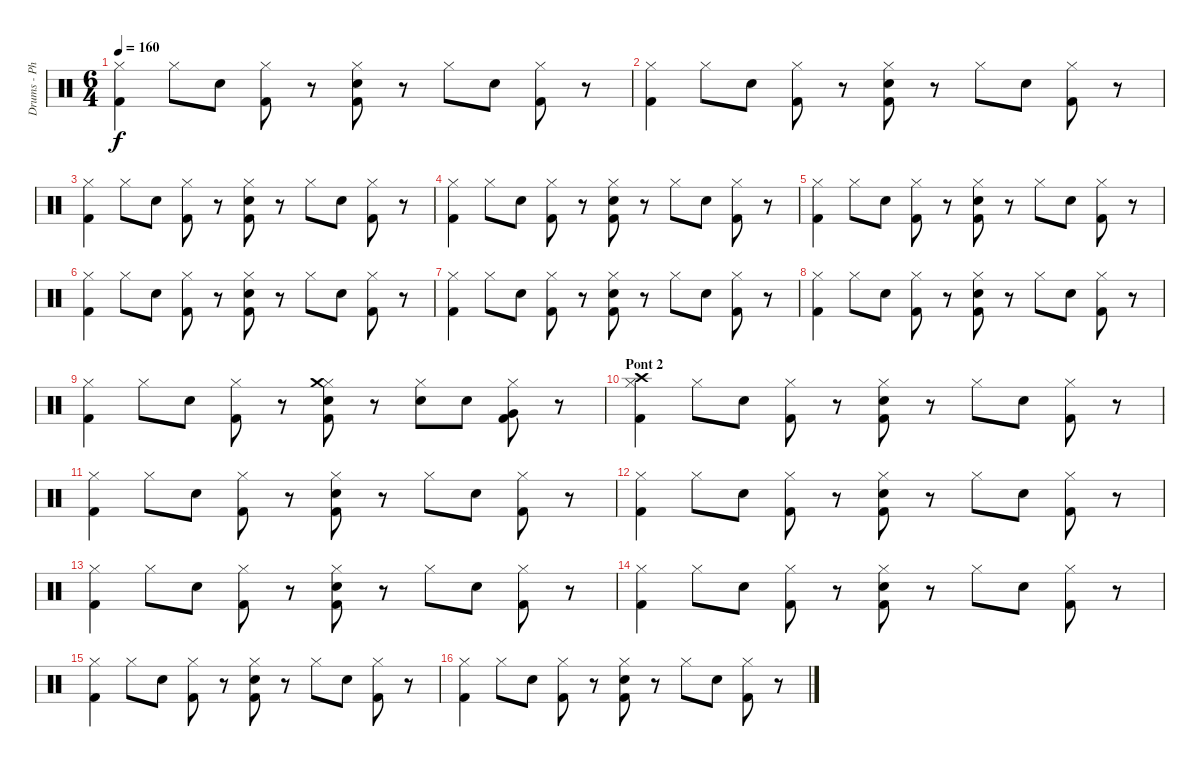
\track ("Drums - Phil Selway" "Drums - Ph") {instrument percussion}
\staff {score}
\articulation defaults
\ts (6 4)
\tempo 160
\clef neutral
\ks c
("Hi-Hat (closed)" "Kick (hit) 2").4{dy f} "Hi-Hat (closed)".8 "Snare (hit) 2".8 ("Hi-Hat (closed)" "Kick (hit) 2").8 r.8 ("Hi-Hat (closed)" "Snare (hit) 2" "Kick (hit) 2").8 r.8 "Hi-Hat (closed)".8 "Snare (hit) 2".8 ("Hi-Hat (closed)" "Kick (hit) 2").8 r.8 |
("Hi-Hat (closed)" "Kick (hit) 2").4 "Hi-Hat (closed)".8 "Snare (hit) 2".8 ("Hi-Hat (closed)" "Kick (hit) 2").8 r.8 ("Hi-Hat (closed)" "Snare (hit) 2" "Kick (hit) 2").8 r.8 "Hi-Hat (closed)".8 "Snare (hit) 2".8 ("Hi-Hat (closed)" "Kick (hit) 2").8 r.8 |
("Hi-Hat (closed)" "Kick (hit) 2").4 "Hi-Hat (closed)".8 "Snare (hit) 2".8 ("Hi-Hat (closed)" "Kick (hit) 2").8 r.8 ("Hi-Hat (closed)" "Snare (hit) 2" "Kick (hit) 2").8 r.8 "Hi-Hat (closed)".8 "Snare (hit) 2".8 ("Hi-Hat (closed)" "Kick (hit) 2").8 r.8 |
("Hi-Hat (closed)" "Kick (hit) 2").4 "Hi-Hat (closed)".8 "Snare (hit) 2".8 ("Hi-Hat (closed)" "Kick (hit) 2").8 r.8 ("Hi-Hat (closed)" "Snare (hit) 2" "Kick (hit) 2").8 r.8 "Hi-Hat (closed)".8 "Snare (hit) 2".8 ("Hi-Hat (closed)" "Kick (hit) 2").8 r.8 |
("Hi-Hat (closed)" "Kick (hit) 2").4 "Hi-Hat (closed)".8 "Snare (hit) 2".8 ("Hi-Hat (closed)" "Kick (hit) 2").8 r.8 ("Hi-Hat (closed)" "Snare (hit) 2" "Kick (hit) 2").8 r.8 "Hi-Hat (closed)".8 "Snare (hit) 2".8 ("Hi-Hat (closed)" "Kick (hit) 2").8 r.8 |
("Hi-Hat (closed)" "Kick (hit) 2").4 "Hi-Hat (closed)".8 "Snare (hit) 2".8 ("Hi-Hat (closed)" "Kick (hit) 2").8 r.8 ("Hi-Hat (closed)" "Snare (hit) 2" "Kick (hit) 2").8 r.8 "Hi-Hat (closed)".8 "Snare (hit) 2".8 ("Hi-Hat (closed)" "Kick (hit) 2").8 r.8 |
("Hi-Hat (closed)" "Kick (hit) 2").4 "Hi-Hat (closed)".8 "Snare (hit) 2".8 ("Hi-Hat (closed)" "Kick (hit) 2").8 r.8 ("Hi-Hat (closed)" "Snare (hit) 2" "Kick (hit) 2").8 r.8 "Hi-Hat (closed)".8 "Snare (hit) 2".8 ("Hi-Hat (closed)" "Kick (hit) 2").8 r.8 |
("Hi-Hat (closed)" "Kick (hit) 2").4 "Hi-Hat (closed)".8 "Snare (hit) 2".8 ("Hi-Hat (closed)" "Kick (hit) 2").8 r.8 ("Hi-Hat (closed)" "Snare (hit) 2" "Kick (hit) 2").8 r.8 "Hi-Hat (closed)".8 "Snare (hit) 2".8 ("Hi-Hat (closed)" "Kick (hit) 2").8 r.8 |
("Hi-Hat (closed)" "Kick (hit) 2").4 "Hi-Hat (closed)".8 "Snare (hit) 2".8 ("Hi-Hat (closed)" "Kick (hit) 2").8 r.8 ("Hi-Hat (closed)" "Crash medium (hit)" "Snare (hit) 2" "Kick (hit) 2").8 r.8 ("Hi-Hat (closed)" "Snare (hit) 2").8 "Snare (hit) 2".8 ("Hi-Hat (closed)" "Very Low Tom (hit)" "Kick (hit) 2").8 r.8 |
\section ("" "Pont 2")
("Hi-Hat (closed)" "Crash high (hit)" "Kick (hit) 2").4 "Hi-Hat (closed)".8 "Snare (hit) 2".8 ("Hi-Hat (closed)" "Kick (hit) 2").8 r.8 ("Hi-Hat (closed)" "Snare (hit) 2" "Kick (hit) 2").8 r.8 "Hi-Hat (closed)".8 "Snare (hit) 2".8 ("Hi-Hat (closed)" "Kick (hit) 2").8 r.8 |
("Hi-Hat (closed)" "Kick (hit) 2").4 "Hi-Hat (closed)".8 "Snare (hit) 2".8 ("Hi-Hat (closed)" "Kick (hit) 2").8 r.8 ("Hi-Hat (closed)" "Snare (hit) 2" "Kick (hit) 2").8 r.8 "Hi-Hat (closed)".8 "Snare (hit) 2".8 ("Hi-Hat (closed)" "Kick (hit) 2").8 r.8 |
("Hi-Hat (closed)" "Kick (hit) 2").4 "Hi-Hat (closed)".8 "Snare (hit) 2".8 ("Hi-Hat (closed)" "Kick (hit) 2").8 r.8 ("Hi-Hat (closed)" "Snare (hit) 2" "Kick (hit) 2").8 r.8 "Hi-Hat (closed)".8 "Snare (hit) 2".8 ("Hi-Hat (closed)" "Kick (hit) 2").8 r.8 |
("Hi-Hat (closed)" "Kick (hit) 2").4 "Hi-Hat (closed)".8 "Snare (hit) 2".8 ("Hi-Hat (closed)" "Kick (hit) 2").8 r.8 ("Hi-Hat (closed)" "Snare (hit) 2" "Kick (hit) 2").8 r.8 "Hi-Hat (closed)".8 "Snare (hit) 2".8 ("Hi-Hat (closed)" "Kick (hit) 2").8 r.8 |
("Hi-Hat (closed)" "Kick (hit) 2").4 "Hi-Hat (closed)".8 "Snare (hit) 2".8 ("Hi-Hat (closed)" "Kick (hit) 2").8 r.8 ("Hi-Hat (closed)" "Snare (hit) 2" "Kick (hit) 2").8 r.8 "Hi-Hat (closed)".8 "Snare (hit) 2".8 ("Hi-Hat (closed)" "Kick (hit) 2").8 r.8 |
("Hi-Hat (closed)" "Kick (hit) 2").4 "Hi-Hat (closed)".8 "Snare (hit) 2".8 ("Hi-Hat (closed)" "Kick (hit) 2").8 r.8 ("Hi-Hat (closed)" "Snare (hit) 2" "Kick (hit) 2").8 r.8 "Hi-Hat (closed)".8 "Snare (hit) 2".8 ("Hi-Hat (closed)" "Kick (hit) 2").8 r.8 |
("Hi-Hat (closed)" "Kick (hit) 2").4 "Hi-Hat (closed)".8 "Snare (hit) 2".8 ("Hi-Hat (closed)" "Kick (hit) 2").8 r.8 ("Hi-Hat (closed)" "Snare (hit) 2" "Kick (hit) 2").8 r.8 "Hi-Hat (closed)".8 "Snare (hit) 2".8 ("Hi-Hat (closed)" "Kick (hit) 2").8 r.8
